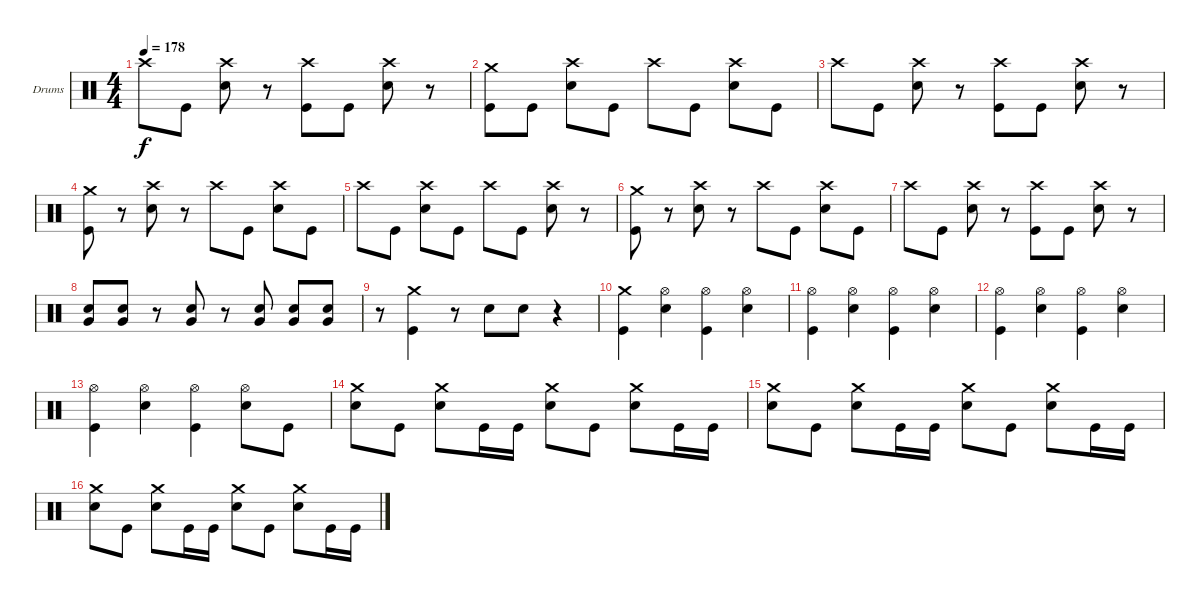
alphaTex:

\bracketExtendMode groupsimilarinstruments
\firstSystemTrackNameOrientation horizontal
\otherSystemsTrackNameOrientation horizontal
\track ("Drumkit" "Drums") {instrument percussion}
\staff {score}
\articulation defaults
\ts (4 4)
\tempo 178
\clef neutral
\ks c "Crash high (hit)".8{dy f} "Kick (hit)".8
("Crash high (hit)" "Snare (hit) 2").8 r.8 ("Crash high (hit)" "Kick (hit)").8 "Kick (hit)".8 ("Crash high (hit)" "Snare (hit) 2").8 r.8 |
("Crash medium (hit)" "Kick (hit)").8 "Kick (hit)".8 ("Crash high (hit)" "Snare (hit) 2").8 "Kick (hit)".8 "Crash high (hit)".8 "Kick (hit)".8 ("Crash high (hit)" "Snare (hit) 2").8 "Kick (hit)".8 |
"Crash high (hit)".8 "Kick (hit)".8 ("Crash high (hit)" "Snare (hit) 2").8 r.8 ("Crash high (hit)" "Kick (hit)").8 "Kick (hit)".8 ("Crash high (hit)" "Snare (hit) 2").8 r.8 |
("Crash medium (hit)" "Kick (hit)").8 r.8 ("Crash high (hit)" "Snare (hit) 2").8 r.8 "Crash high (hit)".8 "Kick (hit)".8 ("Crash high (hit)" "Snare (hit) 2").8 "Kick (hit)".8 |
"Crash high (hit)".8 "Kick (hit)".8 ("Crash high (hit)" "Snare (hit) 2").8 "Kick (hit)".8 "Crash high (hit)".8 "Kick (hit)".8 ("Crash high (hit)" "Snare (hit) 2").8 r.8 |
("Crash medium (hit)" "Kick (hit)").8 r.8 ("Crash high (hit)" "Snare (hit) 2").8 r.8 "Crash high (hit)".8 "Kick (hit)".8 ("Crash high (hit)" "Snare (hit) 2").8 "Kick (hit)".8 |
"Crash high (hit)".8 "Kick (hit)".8 ("Crash high (hit)" "Snare (hit) 2").8 r.8 ("Crash high (hit)" "Kick (hit)").8 "Kick (hit)".8 ("Crash high (hit)" "Snare (hit) 2").8 r.8 |
("Snare (hit) 2" "Very Low Tom (hit)").8 ("Snare (hit) 2" "Very Low Tom (hit)").8 r.8 ("Snare (hit) 2" "Very Low Tom (hit)").8 r.8 ("Snare (hit) 2" "Very Low Tom (hit)").8 ("Snare (hit) 2" "Very Low Tom (hit)").8 ("Snare (hit) 2" "Very Low Tom (hit)").8 |
r.8 ("Crash medium (hit)" "Kick (hit)").4 r.8 "Snare (hit) 2".8 "Snare (hit) 2".8 r.4 |
("Crash medium (hit)" "Kick (hit)").4 ("Hi-Hat (open)" "Snare (hit) 2").4 ("Hi-Hat (open)" "Kick (hit)").4 ("Hi-Hat (open)" "Snare (hit) 2").4 |
("Hi-Hat (open)" "Kick (hit)").4 ("Hi-Hat (open)" "Snare (hit) 2").4 ("Hi-Hat (open)" "Kick (hit)").4 ("Hi-Hat (open)" "Snare (hit) 2").4 |
("Hi-Hat (open)" "Kick (hit)").4 ("Hi-Hat (open)" "Snare (hit) 2").4 ("Hi-Hat (open)" "Kick (hit)").4 ("Hi-Hat (open)" "Snare (hit) 2").4 |
("Hi-Hat (open)" "Kick (hit)").4 ("Hi-Hat (open)" "Snare (hit) 2").4 ("Hi-Hat (open)" "Kick (hit)").4 ("Hi-Hat (open)" "Snare (hit) 2").8 "Kick (hit)".8 |
("Crash medium (hit)" "Snare (hit) 2").8 "Kick (hit)".8 ("Crash medium (hit)" "Snare (hit) 2").8 "Kick (hit)".16 "Kick (hit)".16 ("Crash medium (hit)" "Snare (hit) 2").8 "Kick (hit)".8 ("Crash medium (hit)" "Snare (hit) 2").8 "Kick (hit)".16 "Kick (hit)".16 |
("Crash medium (hit)" "Snare (hit) 2").8 "Kick (hit)".8 ("Crash medium (hit)" "Snare (hit) 2").8 "Kick (hit)".16 "Kick (hit)".16 ("Crash medium (hit)" "Snare (hit) 2").8 "Kick (hit)".8 ("Crash medium (hit)" "Snare (hit) 2").8 "Kick (hit)".16 "Kick (hit)".16 |
("Crash medium (hit)" "Snare (hit) 2").8 "Kick (hit)".8 ("Crash medium (hit)" "Snare (hit) 2").8 "Kick (hit)".16 "Kick (hit)".16 ("Crash medium (hit)" "Snare (hit) 2").8 "Kick (hit)".8 ("Crash medium (hit)" "Snare (hit) 2").8 "Kick (hit)".16 "Kick (hit)".16
